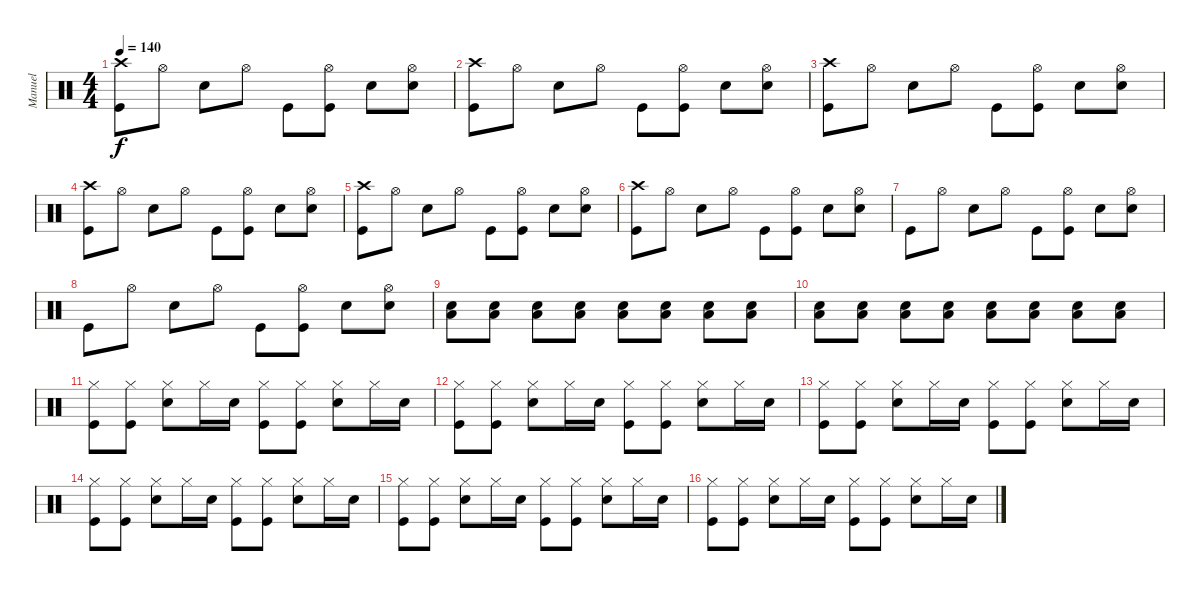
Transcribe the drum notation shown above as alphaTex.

\track ("Manuel" "Manuel") {instrument percussion}
\staff {score}
\articulation defaults
\ts (4 4)
\tempo 140
\clef neutral
\ks c
("Crash high (hit)" "Kick (hit)").8{dy f} "Hi-Hat (open)".8 "Electric Snare (hit)".8 "Hi-Hat (open)".8 "Kick (hit)".8 ("Kick (hit)" "Hi-Hat (open)").8 "Electric Snare (hit)".8 ("Electric Snare (hit)" "Hi-Hat (open)").8 |
("Crash high (hit)" "Kick (hit)").8 "Hi-Hat (open)".8 "Electric Snare (hit)".8 "Hi-Hat (open)".8 "Kick (hit)".8 ("Kick (hit)" "Hi-Hat (open)").8 "Electric Snare (hit)".8 ("Electric Snare (hit)" "Hi-Hat (open)").8 |
("Crash high (hit)" "Kick (hit)").8 "Hi-Hat (open)".8 "Electric Snare (hit)".8 "Hi-Hat (open)".8 "Kick (hit)".8 ("Kick (hit)" "Hi-Hat (open)").8 "Electric Snare (hit)".8 ("Electric Snare (hit)" "Hi-Hat (open)").8 |
("Crash high (hit)" "Kick (hit)").8 "Hi-Hat (open)".8 "Electric Snare (hit)".8 "Hi-Hat (open)".8 "Kick (hit)".8 ("Kick (hit)" "Hi-Hat (open)").8 "Electric Snare (hit)".8 ("Electric Snare (hit)" "Hi-Hat (open)").8 |
("Crash high (hit)" "Kick (hit)").8 "Hi-Hat (open)".8 "Electric Snare (hit)".8 "Hi-Hat (open)".8 "Kick (hit)".8 ("Kick (hit)" "Hi-Hat (open)").8 "Electric Snare (hit)".8 ("Electric Snare (hit)" "Hi-Hat (open)").8 |
("Crash high (hit)" "Kick (hit)").8 "Hi-Hat (open)".8 "Electric Snare (hit)".8 "Hi-Hat (open)".8 "Kick (hit)".8 ("Kick (hit)" "Hi-Hat (open)").8 "Electric Snare (hit)".8 ("Electric Snare (hit)" "Hi-Hat (open)").8 |
"Kick (hit)".8 "Hi-Hat (open)".8 "Electric Snare (hit)".8 "Hi-Hat (open)".8 "Kick (hit)".8 ("Kick (hit)" "Hi-Hat (open)").8 "Electric Snare (hit)".8 ("Electric Snare (hit)" "Hi-Hat (open)").8 |
"Kick (hit)".8 "Hi-Hat (open)".8 "Electric Snare (hit)".8 "Hi-Hat (open)".8 "Kick (hit)".8 ("Kick (hit)" "Hi-Hat (open)").8 "Electric Snare (hit)".8 ("Electric Snare (hit)" "Hi-Hat (open)").8 |
("Low Tom (hit)" "Electric Snare (hit)").8 ("Low Tom (hit)" "Electric Snare (hit)").8 ("Low Tom (hit)" "Electric Snare (hit)").8 ("Low Tom (hit)" "Electric Snare (hit)").8 ("Low Tom (hit)" "Electric Snare (hit)").8 ("Low Tom (hit)" "Electric Snare (hit)").8 ("Low Tom (hit)" "Electric Snare (hit)").8 ("Low Tom (hit)" "Electric Snare (hit)").8 |
("Low Tom (hit)" "Electric Snare (hit)").8 ("Low Tom (hit)" "Electric Snare (hit)").8 ("Low Tom (hit)" "Electric Snare (hit)").8 ("Low Tom (hit)" "Electric Snare (hit)").8 ("Low Tom (hit)" "Electric Snare (hit)").8 ("Low Tom (hit)" "Electric Snare (hit)").8 ("Low Tom (hit)" "Electric Snare (hit)").8 ("Low Tom (hit)" "Electric Snare (hit)").8 |
("Hi-Hat (closed)" "Kick (hit)").8 ("Hi-Hat (closed)" "Kick (hit)").8 ("Hi-Hat (closed)" "Snare (hit) 2").8 "Hi-Hat (closed)".16 "Snare (hit) 2".16 ("Hi-Hat (closed)" "Kick (hit)").8 ("Hi-Hat (closed)" "Kick (hit)").8 ("Hi-Hat (closed)" "Snare (hit) 2").8 "Hi-Hat (closed)".16 "Snare (hit) 2".16 |
("Hi-Hat (closed)" "Kick (hit)").8 ("Hi-Hat (closed)" "Kick (hit)").8 ("Hi-Hat (closed)" "Snare (hit) 2").8 "Hi-Hat (closed)".16 "Snare (hit) 2".16 ("Hi-Hat (closed)" "Kick (hit)").8 ("Hi-Hat (closed)" "Kick (hit)").8 ("Hi-Hat (closed)" "Snare (hit) 2").8 "Hi-Hat (closed)".16 "Snare (hit) 2".16 |
("Hi-Hat (closed)" "Kick (hit)").8 ("Hi-Hat (closed)" "Kick (hit)").8 ("Hi-Hat (closed)" "Snare (hit) 2").8 "Hi-Hat (closed)".16 "Snare (hit) 2".16 ("Hi-Hat (closed)" "Kick (hit)").8 ("Hi-Hat (closed)" "Kick (hit)").8 ("Hi-Hat (closed)" "Snare (hit) 2").8 "Hi-Hat (closed)".16 "Snare (hit) 2".16 |
("Hi-Hat (closed)" "Kick (hit)").8 ("Hi-Hat (closed)" "Kick (hit)").8 ("Hi-Hat (closed)" "Snare (hit) 2").8 "Hi-Hat (closed)".16 "Snare (hit) 2".16 ("Hi-Hat (closed)" "Kick (hit)").8 ("Hi-Hat (closed)" "Kick (hit)").8 ("Hi-Hat (closed)" "Snare (hit) 2").8 "Hi-Hat (closed)".16 "Snare (hit) 2".16 |
("Hi-Hat (closed)" "Kick (hit)").8 ("Hi-Hat (closed)" "Kick (hit)").8 ("Hi-Hat (closed)" "Snare (hit) 2").8 "Hi-Hat (closed)".16 "Snare (hit) 2".16 ("Hi-Hat (closed)" "Kick (hit)").8 ("Hi-Hat (closed)" "Kick (hit)").8 ("Hi-Hat (closed)" "Snare (hit) 2").8 "Hi-Hat (closed)".16 "Snare (hit) 2".16 |
("Hi-Hat (closed)" "Kick (hit)").8 ("Hi-Hat (closed)" "Kick (hit)").8 ("Hi-Hat (closed)" "Snare (hit) 2").8 "Hi-Hat (closed)".16 "Snare (hit) 2".16 ("Hi-Hat (closed)" "Kick (hit)").8 ("Hi-Hat (closed)" "Kick (hit)").8 ("Hi-Hat (closed)" "Snare (hit) 2").8 "Hi-Hat (closed)".16 "Snare (hit) 2".16
